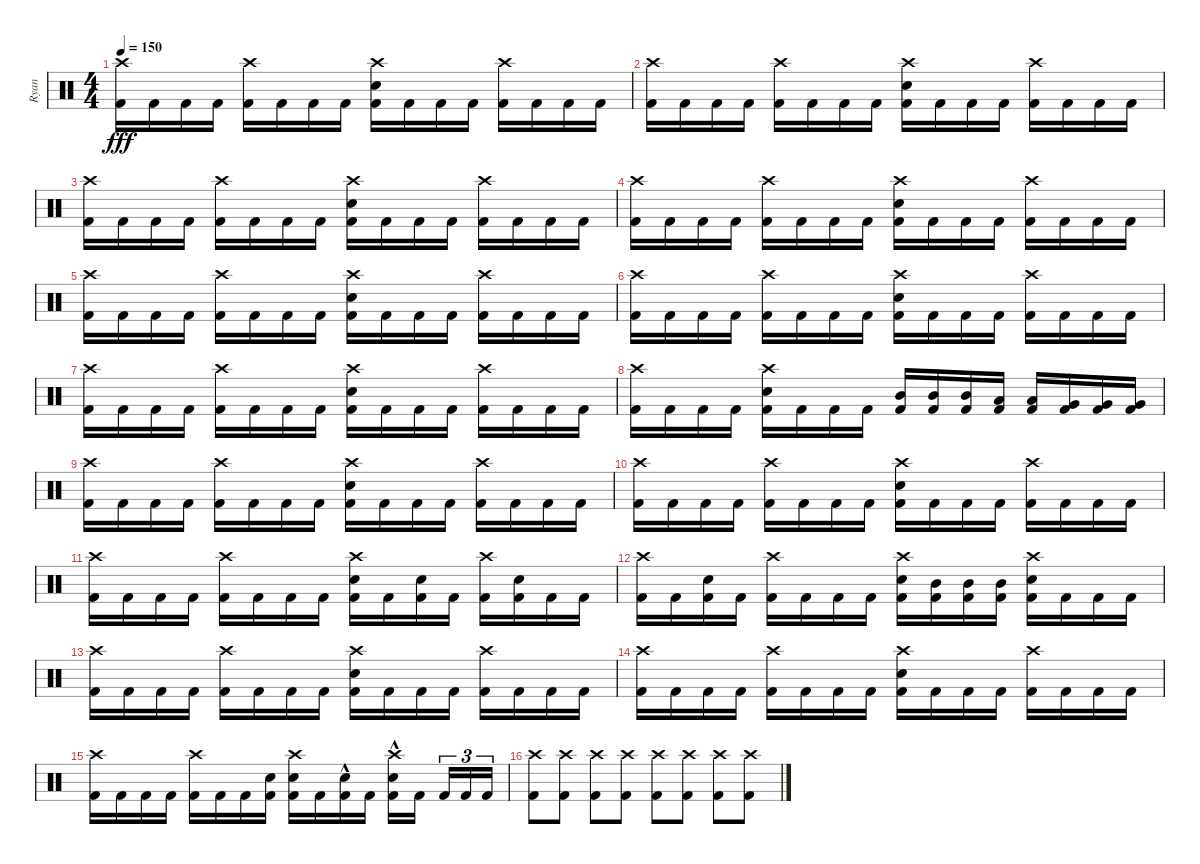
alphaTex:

\track ("Ryan" "Ryan") {instrument percussion}
\staff {score}
\articulation defaults
\ts (4 4)
\tempo 150
\clef neutral
\ks c
("Crash high (hit)" "Kick (hit) 2").16{dy fff} "Kick (hit) 2".16 "Kick (hit) 2".16 "Kick (hit) 2".16 ("Crash high (hit)" "Kick (hit) 2").16 "Kick (hit) 2".16 "Kick (hit) 2".16 "Kick (hit) 2".16 ("Crash high (hit)" "Electric Snare (hit)" "Kick (hit) 2").16 "Kick (hit) 2".16 "Kick (hit) 2".16 "Kick (hit) 2".16 ("Crash high (hit)" "Kick (hit) 2").16 "Kick (hit) 2".16 "Kick (hit) 2".16 "Kick (hit) 2".16 |
("Crash high (hit)" "Kick (hit) 2").16 "Kick (hit) 2".16 "Kick (hit) 2".16 "Kick (hit) 2".16 ("Crash high (hit)" "Kick (hit) 2").16 "Kick (hit) 2".16 "Kick (hit) 2".16 "Kick (hit) 2".16 ("Crash high (hit)" "Electric Snare (hit)" "Kick (hit) 2").16 "Kick (hit) 2".16 "Kick (hit) 2".16 "Kick (hit) 2".16 ("Crash high (hit)" "Kick (hit) 2").16 "Kick (hit) 2".16 "Kick (hit) 2".16 "Kick (hit) 2".16 |
("Crash high (hit)" "Kick (hit) 2").16 "Kick (hit) 2".16 "Kick (hit) 2".16 "Kick (hit) 2".16 ("Crash high (hit)" "Kick (hit) 2").16 "Kick (hit) 2".16 "Kick (hit) 2".16 "Kick (hit) 2".16 ("Crash high (hit)" "Electric Snare (hit)" "Kick (hit) 2").16 "Kick (hit) 2".16 "Kick (hit) 2".16 "Kick (hit) 2".16 ("Crash high (hit)" "Kick (hit) 2").16 "Kick (hit) 2".16 "Kick (hit) 2".16 "Kick (hit) 2".16 |
("Crash high (hit)" "Kick (hit) 2").16 "Kick (hit) 2".16 "Kick (hit) 2".16 "Kick (hit) 2".16 ("Crash high (hit)" "Kick (hit) 2").16 "Kick (hit) 2".16 "Kick (hit) 2".16 "Kick (hit) 2".16 ("Crash high (hit)" "Electric Snare (hit)" "Kick (hit) 2").16 "Kick (hit) 2".16 "Kick (hit) 2".16 "Kick (hit) 2".16 ("Crash high (hit)" "Kick (hit) 2").16 "Kick (hit) 2".16 "Kick (hit) 2".16 "Kick (hit) 2".16 |
("Crash high (hit)" "Kick (hit) 2").16 "Kick (hit) 2".16 "Kick (hit) 2".16 "Kick (hit) 2".16 ("Crash high (hit)" "Kick (hit) 2").16 "Kick (hit) 2".16 "Kick (hit) 2".16 "Kick (hit) 2".16 ("Crash high (hit)" "Electric Snare (hit)" "Kick (hit) 2").16 "Kick (hit) 2".16 "Kick (hit) 2".16 "Kick (hit) 2".16 ("Crash high (hit)" "Kick (hit) 2").16 "Kick (hit) 2".16 "Kick (hit) 2".16 "Kick (hit) 2".16 |
("Crash high (hit)" "Kick (hit) 2").16 "Kick (hit) 2".16 "Kick (hit) 2".16 "Kick (hit) 2".16 ("Crash high (hit)" "Kick (hit) 2").16 "Kick (hit) 2".16 "Kick (hit) 2".16 "Kick (hit) 2".16 ("Crash high (hit)" "Electric Snare (hit)" "Kick (hit) 2").16 "Kick (hit) 2".16 "Kick (hit) 2".16 "Kick (hit) 2".16 ("Crash high (hit)" "Kick (hit) 2").16 "Kick (hit) 2".16 "Kick (hit) 2".16 "Kick (hit) 2".16 |
("Crash high (hit)" "Kick (hit) 2").16 "Kick (hit) 2".16 "Kick (hit) 2".16 "Kick (hit) 2".16 ("Crash high (hit)" "Kick (hit) 2").16 "Kick (hit) 2".16 "Kick (hit) 2".16 "Kick (hit) 2".16 ("Crash high (hit)" "Electric Snare (hit)" "Kick (hit) 2").16 "Kick (hit) 2".16 "Kick (hit) 2".16 "Kick (hit) 2".16 ("Crash high (hit)" "Kick (hit) 2").16 "Kick (hit) 2".16 "Kick (hit) 2".16 "Kick (hit) 2".16 |
("Crash high (hit)" "Kick (hit) 2").16 "Kick (hit) 2".16 "Kick (hit) 2".16 "Kick (hit) 2".16 ("Crash high (hit)" "Electric Snare (hit)" "Kick (hit) 2").16 "Kick (hit) 2".16 "Kick (hit) 2".16 "Kick (hit) 2".16 ("Mid Tom (hit)" "Kick (hit) 2").16 ("Mid Tom (hit)" "Kick (hit) 2").16 ("Mid Tom (hit)" "Kick (hit) 2").16 ("Low Tom (hit)" "Kick (hit) 2").16 ("Low Tom (hit)" "Kick (hit) 2").16 ("Very Low Tom (hit)" "Kick (hit) 2").16 ("Very Low Tom (hit)" "Kick (hit) 2").16 ("Very Low Tom (hit)" "Kick (hit) 2").16 |
("Crash high (hit)" "Kick (hit) 2").16 "Kick (hit) 2".16 "Kick (hit) 2".16 "Kick (hit) 2".16 ("Crash high (hit)" "Kick (hit) 2").16 "Kick (hit) 2".16 "Kick (hit) 2".16 "Kick (hit) 2".16 ("Crash high (hit)" "Electric Snare (hit)" "Kick (hit) 2").16 "Kick (hit) 2".16 "Kick (hit) 2".16 "Kick (hit) 2".16 ("Crash high (hit)" "Kick (hit) 2").16 "Kick (hit) 2".16 "Kick (hit) 2".16 "Kick (hit) 2".16 |
("Crash high (hit)" "Kick (hit) 2").16 "Kick (hit) 2".16 "Kick (hit) 2".16 "Kick (hit) 2".16 ("Crash high (hit)" "Kick (hit) 2").16 "Kick (hit) 2".16 "Kick (hit) 2".16 "Kick (hit) 2".16 ("Crash high (hit)" "Electric Snare (hit)" "Kick (hit) 2").16 "Kick (hit) 2".16 "Kick (hit) 2".16 "Kick (hit) 2".16 ("Crash high (hit)" "Kick (hit) 2").16 "Kick (hit) 2".16 "Kick (hit) 2".16 "Kick (hit) 2".16 |
("Crash high (hit)" "Kick (hit) 2").16 "Kick (hit) 2".16 "Kick (hit) 2".16 "Kick (hit) 2".16 ("Crash high (hit)" "Kick (hit) 2").16 "Kick (hit) 2".16 "Kick (hit) 2".16 "Kick (hit) 2".16 ("Crash high (hit)" "Electric Snare (hit)" "Kick (hit) 2").16 "Kick (hit) 2".16 ("Electric Snare (hit)" "Kick (hit) 2").16 "Kick (hit) 2".16 ("Crash high (hit)" "Kick (hit) 2").16 ("Electric Snare (hit)" "Kick (hit) 2").16 "Kick (hit) 2".16 "Kick (hit) 2".16 |
("Crash high (hit)" "Kick (hit) 2").16 "Kick (hit) 2".16 ("Electric Snare (hit)" "Kick (hit) 2").16 "Kick (hit) 2".16 ("Crash high (hit)" "Kick (hit) 2").16 "Kick (hit) 2".16 "Kick (hit) 2".16 "Kick (hit) 2".16 ("Crash high (hit)" "Electric Snare (hit)" "Kick (hit) 2").16 ("Mid Tom (hit)" "Kick (hit) 2").16 ("Mid Tom (hit)" "Kick (hit) 2").16 ("Mid Tom (hit)" "Kick (hit) 2").16 ("Crash high (hit)" "Electric Snare (hit)" "Kick (hit) 2").16 "Kick (hit) 2".16 "Kick (hit) 2".16 "Kick (hit) 2".16 |
("Crash high (hit)" "Kick (hit) 2").16 "Kick (hit) 2".16 "Kick (hit) 2".16 "Kick (hit) 2".16 ("Crash high (hit)" "Kick (hit) 2").16 "Kick (hit) 2".16 "Kick (hit) 2".16 "Kick (hit) 2".16 ("Crash high (hit)" "Electric Snare (hit)" "Kick (hit) 2").16 "Kick (hit) 2".16 "Kick (hit) 2".16 "Kick (hit) 2".16 ("Crash high (hit)" "Kick (hit) 2").16 "Kick (hit) 2".16 "Kick (hit) 2".16 "Kick (hit) 2".16 |
("Crash high (hit)" "Kick (hit) 2").16 "Kick (hit) 2".16 "Kick (hit) 2".16 "Kick (hit) 2".16 ("Crash high (hit)" "Kick (hit) 2").16 "Kick (hit) 2".16 "Kick (hit) 2".16 "Kick (hit) 2".16 ("Crash high (hit)" "Electric Snare (hit)" "Kick (hit) 2").16 "Kick (hit) 2".16 "Kick (hit) 2".16 "Kick (hit) 2".16 ("Crash high (hit)" "Kick (hit) 2").16 "Kick (hit) 2".16 "Kick (hit) 2".16 "Kick (hit) 2".16 |
("Crash high (hit)" "Kick (hit) 2").16 "Kick (hit) 2".16 "Kick (hit) 2".16 "Kick (hit) 2".16 ("Crash high (hit)" "Kick (hit) 2").16 "Kick (hit) 2".16 "Kick (hit) 2".16 ("Electric Snare (hit)" "Kick (hit) 2").16 ("Crash high (hit)" "Electric Snare (hit)" "Kick (hit) 2").16 "Kick (hit) 2".16 ("Electric Snare (hit)"{hac} "Kick (hit) 2").16 "Kick (hit) 2".16 ("Crash high (hit)" "Electric Snare (hit)"{hac} "Kick (hit) 2").16 "Kick (hit) 2".16{beam splitsecondary} "Kick (hit) 2".16{tu (3 2)} "Kick (hit) 2".16{tu (3 2)} "Kick (hit) 2".16{tu (3 2)} |
("Crash high (hit)" "Kick (hit) 2").8 ("Crash high (hit)" "Kick (hit) 2").8 ("Crash high (hit)" "Kick (hit) 2").8 ("Crash high (hit)" "Kick (hit) 2").8 ("Crash high (hit)" "Kick (hit) 2").8 ("Crash high (hit)" "Kick (hit) 2").8 ("Crash high (hit)" "Kick (hit) 2").8 ("Crash high (hit)" "Kick (hit) 2").8
